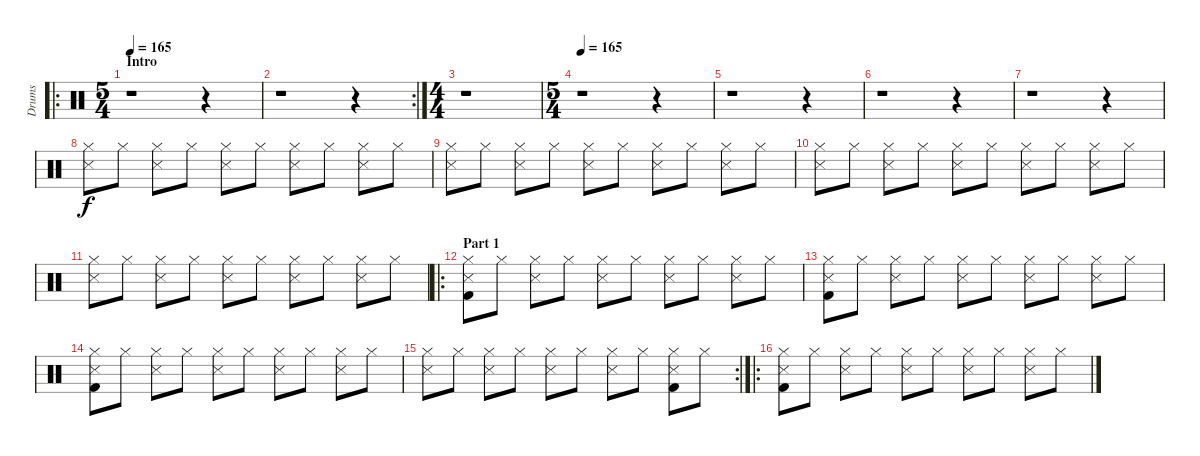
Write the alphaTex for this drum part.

\track ("Drums" "Drums") {instrument percussion}
\staff {score}
\articulation defaults
\ro
\ts (5 4)
\section ("" "Intro")
\tempo 165
\tempo 125
\tempo 165
\clef neutral
\ks c
r.1{dy f} r.4 |
\rc 2
r.1 r.4 |
\ts (4 4)
r.1 |
\ts (5 4)
\tempo 165
r.1 r.4 |
r.1 r.4 |
r.1 r.4 |
r.1 r.4 |
("Hi-Hat (closed)" "Snare (side stick) 3").8 "Hi-Hat (closed)".8 ("Hi-Hat (closed)" "Snare (side stick) 3").8 "Hi-Hat (closed)".8 ("Hi-Hat (closed)" "Snare (side stick) 3").8 "Hi-Hat (closed)".8 ("Hi-Hat (closed)" "Snare (side stick) 3").8 "Hi-Hat (closed)".8 ("Hi-Hat (closed)" "Snare (side stick) 3").8 "Hi-Hat (closed)".8 |
("Hi-Hat (closed)" "Snare (side stick) 3").8 "Hi-Hat (closed)".8 ("Hi-Hat (closed)" "Snare (side stick) 3").8 "Hi-Hat (closed)".8 ("Hi-Hat (closed)" "Snare (side stick) 3").8 "Hi-Hat (closed)".8 ("Hi-Hat (closed)" "Snare (side stick) 3").8 "Hi-Hat (closed)".8 ("Hi-Hat (closed)" "Snare (side stick) 3").8 "Hi-Hat (closed)".8 |
("Hi-Hat (closed)" "Snare (side stick) 3").8 "Hi-Hat (closed)".8 ("Hi-Hat (closed)" "Snare (side stick) 3").8 "Hi-Hat (closed)".8 ("Hi-Hat (closed)" "Snare (side stick) 3").8 "Hi-Hat (closed)".8 ("Hi-Hat (closed)" "Snare (side stick) 3").8 "Hi-Hat (closed)".8 ("Hi-Hat (closed)" "Snare (side stick) 3").8 "Hi-Hat (closed)".8 |
("Hi-Hat (closed)" "Snare (side stick) 3").8 "Hi-Hat (closed)".8 ("Hi-Hat (closed)" "Snare (side stick) 3").8 "Hi-Hat (closed)".8 ("Hi-Hat (closed)" "Snare (side stick) 3").8 "Hi-Hat (closed)".8 ("Hi-Hat (closed)" "Snare (side stick) 3").8 "Hi-Hat (closed)".8 ("Hi-Hat (closed)" "Snare (side stick) 3").8 "Hi-Hat (closed)".8 |
\ro
\section ("" "Part 1")
("Hi-Hat (closed)" "Snare (side stick) 3" "Kick (hit) 2").8 "Hi-Hat (closed)".8 ("Hi-Hat (closed)" "Snare (side stick) 3").8 "Hi-Hat (closed)".8 ("Hi-Hat (closed)" "Snare (side stick) 3").8 "Hi-Hat (closed)".8 ("Hi-Hat (closed)" "Snare (side stick) 3").8 "Hi-Hat (closed)".8 ("Hi-Hat (closed)" "Snare (side stick) 3").8 "Hi-Hat (closed)".8 |
("Hi-Hat (closed)" "Snare (side stick) 3" "Kick (hit) 2").8 "Hi-Hat (closed)".8 ("Hi-Hat (closed)" "Snare (side stick) 3").8 "Hi-Hat (closed)".8 ("Hi-Hat (closed)" "Snare (side stick) 3").8 "Hi-Hat (closed)".8 ("Hi-Hat (closed)" "Snare (side stick) 3").8 "Hi-Hat (closed)".8 ("Hi-Hat (closed)" "Snare (side stick) 3").8 "Hi-Hat (closed)".8 |
("Hi-Hat (closed)" "Snare (side stick) 3" "Kick (hit) 2").8 "Hi-Hat (closed)".8 ("Hi-Hat (closed)" "Snare (side stick) 3").8 "Hi-Hat (closed)".8 ("Hi-Hat (closed)" "Snare (side stick) 3").8 "Hi-Hat (closed)".8 ("Hi-Hat (closed)" "Snare (side stick) 3").8 "Hi-Hat (closed)".8 ("Hi-Hat (closed)" "Snare (side stick) 3").8 "Hi-Hat (closed)".8 |
\rc 2
("Hi-Hat (closed)" "Snare (side stick) 3").8 "Hi-Hat (closed)".8 ("Hi-Hat (closed)" "Snare (side stick) 3").8 "Hi-Hat (closed)".8 ("Hi-Hat (closed)" "Snare (side stick) 3").8 "Hi-Hat (closed)".8 ("Hi-Hat (closed)" "Snare (side stick) 3").8 "Hi-Hat (closed)".8 ("Hi-Hat (closed)" "Snare (side stick) 3" "Kick (hit) 2").8 "Hi-Hat (closed)".8 |
\ro
("Hi-Hat (closed)" "Snare (side stick) 3" "Kick (hit) 2").8 "Hi-Hat (closed)".8 ("Hi-Hat (closed)" "Snare (side stick) 3").8 "Hi-Hat (closed)".8 ("Hi-Hat (closed)" "Snare (side stick) 3").8 "Hi-Hat (closed)".8 ("Hi-Hat (closed)" "Snare (side stick) 3").8 "Hi-Hat (closed)".8 ("Hi-Hat (closed)" "Snare (side stick) 3").8 "Hi-Hat (closed)".8
